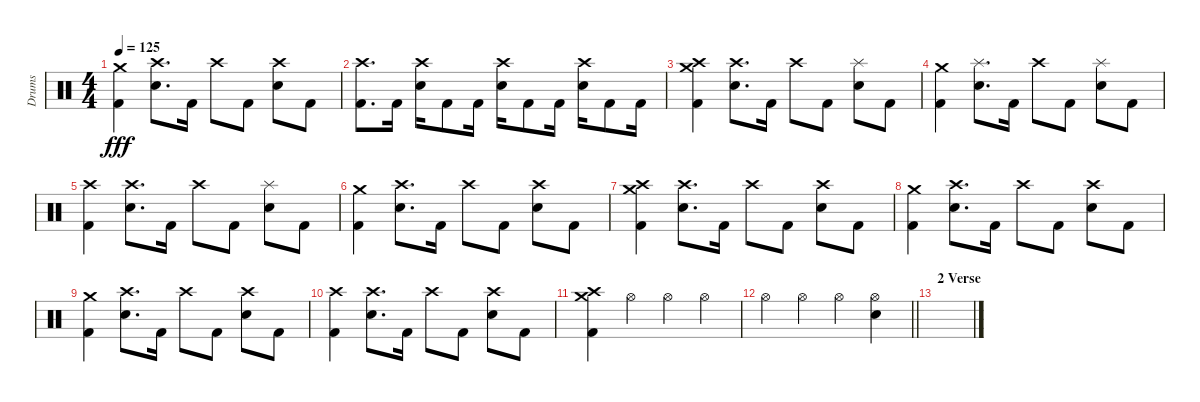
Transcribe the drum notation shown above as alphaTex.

\track ("Drums" "Drums") {instrument percussion}
\staff {score}
\articulation defaults
\ts (4 4)
\tempo 125
\clef neutral
\ks c
("Crash medium (hit)" "Kick (hit) 2").4{dy fff} ("Crash high (hit)" "Electric Snare (hit)").8{d} "Kick (hit) 2".16 "Crash high (hit)".8 "Kick (hit) 2".8 ("Crash high (hit)" "Electric Snare (hit)").8 "Kick (hit) 2".8 |
("Crash high (hit)" "Kick (hit) 2").8{d} "Kick (hit) 2".16 ("Crash high (hit)" "Electric Snare (hit)").16 "Kick (hit) 2".8 "Kick (hit) 2".16 ("Crash high (hit)" "Electric Snare (hit)").16 "Kick (hit) 2".8 "Kick (hit) 2".16 ("Crash high (hit)" "Electric Snare (hit)").16 "Kick (hit) 2".8 "Kick (hit) 2".16 |
("Crash medium (hit)" "Crash high (hit)" "Kick (hit) 2").4 ("Crash high (hit)" "Electric Snare (hit)").8{d} "Kick (hit) 2".16 "Crash high (hit)".8 "Kick (hit) 2".8 ("Splash (hit)" "Electric Snare (hit)").8 "Kick (hit) 2".8 |
("Crash medium (hit)" "Kick (hit) 2").4 ("Splash (hit)" "Electric Snare (hit)").8{d} "Kick (hit) 2".16 "Crash high (hit)".8 "Kick (hit) 2".8 ("Splash (hit)" "Electric Snare (hit)").8 "Kick (hit) 2".8 |
("Crash high (hit)" "Kick (hit) 2").4 ("Crash high (hit)" "Electric Snare (hit)").8{d} "Kick (hit) 2".16 "Crash high (hit)".8 "Kick (hit) 2".8 ("Splash (hit)" "Electric Snare (hit)").8 "Kick (hit) 2".8 |
("Crash medium (hit)" "Kick (hit) 2").4 ("Crash high (hit)" "Electric Snare (hit)").8{d} "Kick (hit) 2".16 "Crash high (hit)".8 "Kick (hit) 2".8 ("Crash high (hit)" "Electric Snare (hit)").8 "Kick (hit) 2".8 |
("Crash high (hit)" "Crash medium (hit)" "Kick (hit) 2").4 ("Crash high (hit)" "Electric Snare (hit)").8{d} "Kick (hit) 2".16 "Crash high (hit)".8 "Kick (hit) 2".8 ("Crash high (hit)" "Electric Snare (hit)").8 "Kick (hit) 2".8 |
("Crash medium (hit)" "Kick (hit) 2").4 ("Crash high (hit)" "Electric Snare (hit)").8{d} "Kick (hit) 2".16 "Crash high (hit)".8 "Kick (hit) 2".8 ("Crash high (hit)" "Electric Snare (hit)").8 "Kick (hit) 2".8 |
("Crash medium (hit)" "Kick (hit) 2").4 ("Crash high (hit)" "Electric Snare (hit)").8{d} "Kick (hit) 2".16 "Crash high (hit)".8 "Kick (hit) 2".8 ("Crash high (hit)" "Electric Snare (hit)").8 "Kick (hit) 2".8 |
("Crash high (hit)" "Kick (hit) 2").4 ("Crash high (hit)" "Electric Snare (hit)").8{d} "Kick (hit) 2".16 "Crash high (hit)".8 "Kick (hit) 2".8 ("Crash high (hit)" "Electric Snare (hit)").8 "Kick (hit) 2".8 |
("Crash medium (hit)" "Crash high (hit)" "Kick (hit) 2").4 "Hi-Hat (open)".4 "Hi-Hat (open)".4 "Hi-Hat (open)".4 |
\barLineRight lightlight "Hi-Hat (open)".4 "Hi-Hat (open)".4 "Hi-Hat (open)".4
("Hi-Hat (open)" "Electric Snare (hit)").4 |
\section ("" "2 Verse")
